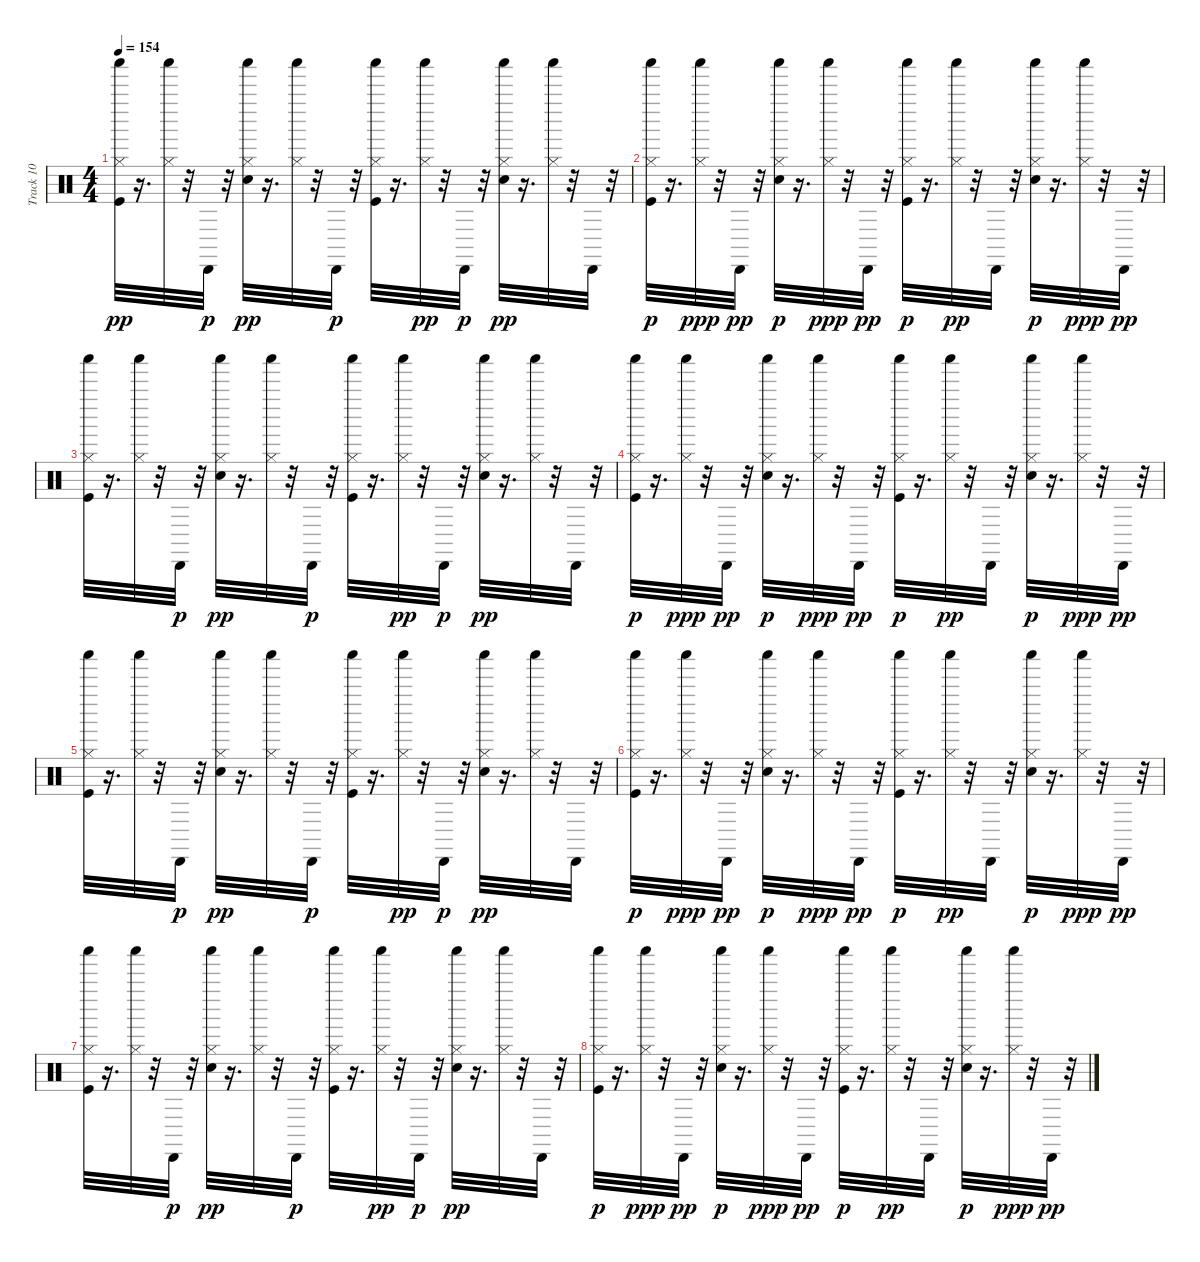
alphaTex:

\track ("Track 10" "Track 10") {instrument percussion}
\staff {score}
\articulation defaults
\ts (4 4)
\tempo 154
\clef neutral
\ks c
("Kick (hit)" "Hi-Hat (closed)" "Shaker (hit)").32{dy pp} r.16{d} ("Hi-Hat (closed)" "Shaker (hit)").32 r.32 "Cabasa (hit)".32{dy p} r.32 ("Electric Snare (hit)" "Hi-Hat (closed)" "Shaker (hit)").32{dy pp} r.16{d} ("Hi-Hat (closed)" "Shaker (hit)").32 r.32 "Cabasa (hit)".32{dy p} r.32 ("Kick (hit)" "Hi-Hat (closed)" "Shaker (hit)").32 r.16{d} ("Hi-Hat (closed)" "Shaker (hit)").32{dy pp} r.32 "Cabasa (hit)".32{dy p} r.32 ("Electric Snare (hit)" "Hi-Hat (closed)" "Shaker (hit)").32{dy pp} r.16{d} ("Hi-Hat (closed)" "Shaker (hit)").32 r.32 "Cabasa (hit)".32 r.32 |
("Kick (hit)" "Hi-Hat (closed)" "Shaker (hit)").32{dy p} r.16{d} ("Hi-Hat (closed)" "Shaker (hit)").32{dy ppp} r.32 "Cabasa (hit)".32{dy pp} r.32 ("Electric Snare (hit)" "Hi-Hat (closed)" "Shaker (hit)").32{dy p} r.16{d} ("Hi-Hat (closed)" "Shaker (hit)").32{dy ppp} r.32 "Cabasa (hit)".32{dy pp} r.32 ("Kick (hit)" "Hi-Hat (closed)" "Shaker (hit)").32{dy p} r.16{d} ("Hi-Hat (closed)" "Shaker (hit)").32{dy pp} r.32 "Cabasa (hit)".32 r.32 ("Electric Snare (hit)" "Hi-Hat (closed)" "Shaker (hit)").32{dy p} r.16{d} ("Hi-Hat (closed)" "Shaker (hit)").32{dy ppp} r.32 "Cabasa (hit)".32{dy pp} r.32 |
("Kick (hit)" "Hi-Hat (closed)" "Shaker (hit)").32 r.16{d} ("Hi-Hat (closed)" "Shaker (hit)").32 r.32 "Cabasa (hit)".32{dy p} r.32 ("Electric Snare (hit)" "Hi-Hat (closed)" "Shaker (hit)").32{dy pp} r.16{d} ("Hi-Hat (closed)" "Shaker (hit)").32 r.32 "Cabasa (hit)".32{dy p} r.32 ("Kick (hit)" "Hi-Hat (closed)" "Shaker (hit)").32 r.16{d} ("Hi-Hat (closed)" "Shaker (hit)").32{dy pp} r.32 "Cabasa (hit)".32{dy p} r.32 ("Electric Snare (hit)" "Hi-Hat (closed)" "Shaker (hit)").32{dy pp} r.16{d} ("Hi-Hat (closed)" "Shaker (hit)").32 r.32 "Cabasa (hit)".32 r.32 |
("Kick (hit)" "Hi-Hat (closed)" "Shaker (hit)").32{dy p} r.16{d} ("Hi-Hat (closed)" "Shaker (hit)").32{dy ppp} r.32 "Cabasa (hit)".32{dy pp} r.32 ("Electric Snare (hit)" "Hi-Hat (closed)" "Shaker (hit)").32{dy p} r.16{d} ("Hi-Hat (closed)" "Shaker (hit)").32{dy ppp} r.32 "Cabasa (hit)".32{dy pp} r.32 ("Kick (hit)" "Hi-Hat (closed)" "Shaker (hit)").32{dy p} r.16{d} ("Hi-Hat (closed)" "Shaker (hit)").32{dy pp} r.32 "Cabasa (hit)".32 r.32 ("Electric Snare (hit)" "Hi-Hat (closed)" "Shaker (hit)").32{dy p} r.16{d} ("Hi-Hat (closed)" "Shaker (hit)").32{dy ppp} r.32 "Cabasa (hit)".32{dy pp} r.32 |
("Kick (hit)" "Hi-Hat (closed)" "Shaker (hit)").32 r.16{d} ("Hi-Hat (closed)" "Shaker (hit)").32 r.32 "Cabasa (hit)".32{dy p} r.32 ("Electric Snare (hit)" "Hi-Hat (closed)" "Shaker (hit)").32{dy pp} r.16{d} ("Hi-Hat (closed)" "Shaker (hit)").32 r.32 "Cabasa (hit)".32{dy p} r.32 ("Kick (hit)" "Hi-Hat (closed)" "Shaker (hit)").32 r.16{d} ("Hi-Hat (closed)" "Shaker (hit)").32{dy pp} r.32 "Cabasa (hit)".32{dy p} r.32 ("Electric Snare (hit)" "Hi-Hat (closed)" "Shaker (hit)").32{dy pp} r.16{d} ("Hi-Hat (closed)" "Shaker (hit)").32 r.32 "Cabasa (hit)".32 r.32 |
("Kick (hit)" "Hi-Hat (closed)" "Shaker (hit)").32{dy p} r.16{d} ("Hi-Hat (closed)" "Shaker (hit)").32{dy ppp} r.32 "Cabasa (hit)".32{dy pp} r.32 ("Electric Snare (hit)" "Hi-Hat (closed)" "Shaker (hit)").32{dy p} r.16{d} ("Hi-Hat (closed)" "Shaker (hit)").32{dy ppp} r.32 "Cabasa (hit)".32{dy pp} r.32 ("Kick (hit)" "Hi-Hat (closed)" "Shaker (hit)").32{dy p} r.16{d} ("Hi-Hat (closed)" "Shaker (hit)").32{dy pp} r.32 "Cabasa (hit)".32 r.32 ("Electric Snare (hit)" "Hi-Hat (closed)" "Shaker (hit)").32{dy p} r.16{d} ("Hi-Hat (closed)" "Shaker (hit)").32{dy ppp} r.32 "Cabasa (hit)".32{dy pp} r.32 |
("Kick (hit)" "Hi-Hat (closed)" "Shaker (hit)").32 r.16{d} ("Hi-Hat (closed)" "Shaker (hit)").32 r.32 "Cabasa (hit)".32{dy p} r.32 ("Electric Snare (hit)" "Hi-Hat (closed)" "Shaker (hit)").32{dy pp} r.16{d} ("Hi-Hat (closed)" "Shaker (hit)").32 r.32 "Cabasa (hit)".32{dy p} r.32 ("Kick (hit)" "Hi-Hat (closed)" "Shaker (hit)").32 r.16{d} ("Hi-Hat (closed)" "Shaker (hit)").32{dy pp} r.32 "Cabasa (hit)".32{dy p} r.32 ("Electric Snare (hit)" "Hi-Hat (closed)" "Shaker (hit)").32{dy pp} r.16{d} ("Hi-Hat (closed)" "Shaker (hit)").32 r.32 "Cabasa (hit)".32 r.32 |
("Kick (hit)" "Hi-Hat (closed)" "Shaker (hit)").32{dy p} r.16{d} ("Hi-Hat (closed)" "Shaker (hit)").32{dy ppp} r.32 "Cabasa (hit)".32{dy pp} r.32 ("Electric Snare (hit)" "Hi-Hat (closed)" "Shaker (hit)").32{dy p} r.16{d} ("Hi-Hat (closed)" "Shaker (hit)").32{dy ppp} r.32 "Cabasa (hit)".32{dy pp} r.32 ("Kick (hit)" "Hi-Hat (closed)" "Shaker (hit)").32{dy p} r.16{d} ("Hi-Hat (closed)" "Shaker (hit)").32{dy pp} r.32 "Cabasa (hit)".32 r.32 ("Electric Snare (hit)" "Hi-Hat (closed)" "Shaker (hit)").32{dy p} r.16{d} ("Hi-Hat (closed)" "Shaker (hit)").32{dy ppp} r.32 "Cabasa (hit)".32{dy pp} r.32
